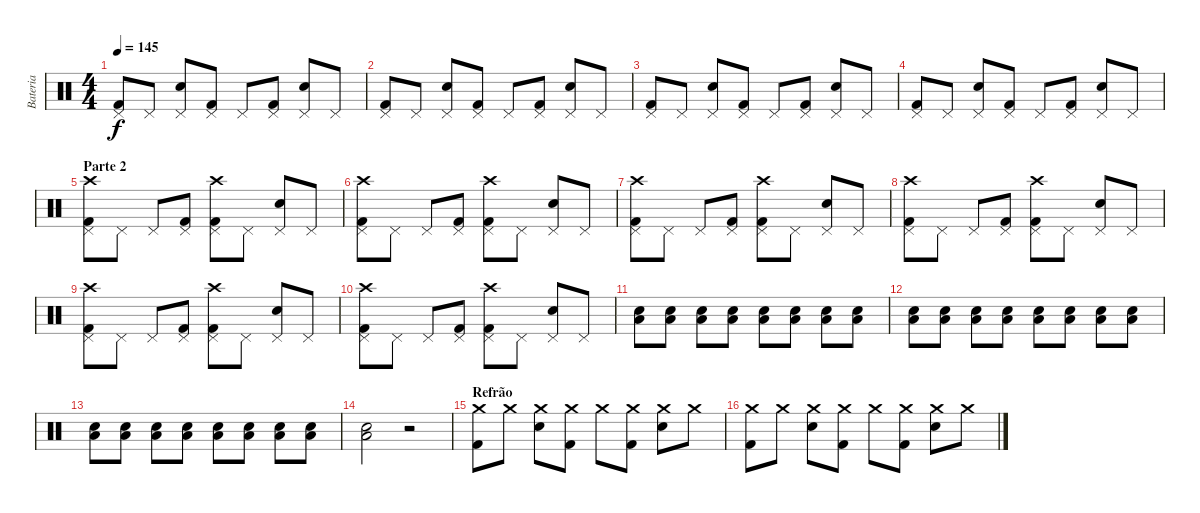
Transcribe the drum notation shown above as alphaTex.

\track ("Bateria" "Bateria") {instrument percussion}
\staff {score}
\articulation defaults
\ts (4 4)
\tempo 145
\clef neutral
\ks c
("Kick (hit) 2" "Pedal Hi-Hat (hit)").8{dy f} "Pedal Hi-Hat (hit)".8 ("Pedal Hi-Hat (hit)" "Snare (hit) 2").8 ("Kick (hit) 2" "Pedal Hi-Hat (hit)").8 "Pedal Hi-Hat (hit)".8 ("Kick (hit) 2" "Pedal Hi-Hat (hit)").8 ("Pedal Hi-Hat (hit)" "Snare (hit) 2").8 "Pedal Hi-Hat (hit)".8 |
("Kick (hit) 2" "Pedal Hi-Hat (hit)").8 "Pedal Hi-Hat (hit)".8 ("Pedal Hi-Hat (hit)" "Snare (hit) 2").8 ("Kick (hit) 2" "Pedal Hi-Hat (hit)").8 "Pedal Hi-Hat (hit)".8 ("Kick (hit) 2" "Pedal Hi-Hat (hit)").8 ("Pedal Hi-Hat (hit)" "Snare (hit) 2").8 "Pedal Hi-Hat (hit)".8 |
("Kick (hit) 2" "Pedal Hi-Hat (hit)").8 "Pedal Hi-Hat (hit)".8 ("Pedal Hi-Hat (hit)" "Snare (hit) 2").8 ("Kick (hit) 2" "Pedal Hi-Hat (hit)").8 "Pedal Hi-Hat (hit)".8 ("Kick (hit) 2" "Pedal Hi-Hat (hit)").8 ("Pedal Hi-Hat (hit)" "Snare (hit) 2").8 "Pedal Hi-Hat (hit)".8 |
("Kick (hit) 2" "Pedal Hi-Hat (hit)").8 "Pedal Hi-Hat (hit)".8 ("Pedal Hi-Hat (hit)" "Snare (hit) 2").8 ("Kick (hit) 2" "Pedal Hi-Hat (hit)").8 "Pedal Hi-Hat (hit)".8 ("Kick (hit) 2" "Pedal Hi-Hat (hit)").8 ("Pedal Hi-Hat (hit)" "Snare (hit) 2").8 "Pedal Hi-Hat (hit)".8 |
\section ("" "Parte 2")
("Kick (hit) 2" "Pedal Hi-Hat (hit)" "Crash high (hit)").8 "Pedal Hi-Hat (hit)".8 "Pedal Hi-Hat (hit)".8 ("Kick (hit) 2" "Pedal Hi-Hat (hit)").8 ("Kick (hit) 2" "Pedal Hi-Hat (hit)" "Crash high (hit)").8 "Pedal Hi-Hat (hit)".8 ("Snare (hit) 2" "Pedal Hi-Hat (hit)").8 "Pedal Hi-Hat (hit)".8 |
("Kick (hit) 2" "Pedal Hi-Hat (hit)" "Crash high (hit)").8 "Pedal Hi-Hat (hit)".8 "Pedal Hi-Hat (hit)".8 ("Kick (hit) 2" "Pedal Hi-Hat (hit)").8 ("Kick (hit) 2" "Pedal Hi-Hat (hit)" "Crash high (hit)").8 "Pedal Hi-Hat (hit)".8 ("Snare (hit) 2" "Pedal Hi-Hat (hit)").8 "Pedal Hi-Hat (hit)".8 |
("Kick (hit) 2" "Pedal Hi-Hat (hit)" "Crash high (hit)").8 "Pedal Hi-Hat (hit)".8 "Pedal Hi-Hat (hit)".8 ("Kick (hit) 2" "Pedal Hi-Hat (hit)").8 ("Kick (hit) 2" "Pedal Hi-Hat (hit)" "Crash high (hit)").8 "Pedal Hi-Hat (hit)".8 ("Snare (hit) 2" "Pedal Hi-Hat (hit)").8 "Pedal Hi-Hat (hit)".8 |
("Kick (hit) 2" "Pedal Hi-Hat (hit)" "Crash high (hit)").8 "Pedal Hi-Hat (hit)".8 "Pedal Hi-Hat (hit)".8 ("Kick (hit) 2" "Pedal Hi-Hat (hit)").8 ("Kick (hit) 2" "Pedal Hi-Hat (hit)" "Crash high (hit)").8 "Pedal Hi-Hat (hit)".8 ("Snare (hit) 2" "Pedal Hi-Hat (hit)").8 "Pedal Hi-Hat (hit)".8 |
("Kick (hit) 2" "Pedal Hi-Hat (hit)" "Crash high (hit)").8 "Pedal Hi-Hat (hit)".8 "Pedal Hi-Hat (hit)".8 ("Kick (hit) 2" "Pedal Hi-Hat (hit)").8 ("Kick (hit) 2" "Pedal Hi-Hat (hit)" "Crash high (hit)").8 "Pedal Hi-Hat (hit)".8 ("Snare (hit) 2" "Pedal Hi-Hat (hit)").8 "Pedal Hi-Hat (hit)".8 |
("Kick (hit) 2" "Pedal Hi-Hat (hit)" "Crash high (hit)").8 "Pedal Hi-Hat (hit)".8 "Pedal Hi-Hat (hit)".8 ("Kick (hit) 2" "Pedal Hi-Hat (hit)").8 ("Kick (hit) 2" "Pedal Hi-Hat (hit)" "Crash high (hit)").8 "Pedal Hi-Hat (hit)".8 ("Snare (hit) 2" "Pedal Hi-Hat (hit)").8 "Pedal Hi-Hat (hit)".8 |
("Snare (hit) 2" "Low Floor Tom (hit)").8 ("Snare (hit) 2" "Low Floor Tom (hit)").8 ("Snare (hit) 2" "Low Floor Tom (hit)").8 ("Snare (hit) 2" "Low Floor Tom (hit)").8 ("Snare (hit) 2" "Low Floor Tom (hit)").8 ("Snare (hit) 2" "Low Floor Tom (hit)").8 ("Snare (hit) 2" "Low Floor Tom (hit)").8 ("Snare (hit) 2" "Low Floor Tom (hit)").8 |
("Snare (hit) 2" "Low Floor Tom (hit)").8 ("Snare (hit) 2" "Low Floor Tom (hit)").8 ("Snare (hit) 2" "Low Floor Tom (hit)").8 ("Snare (hit) 2" "Low Floor Tom (hit)").8 ("Snare (hit) 2" "Low Floor Tom (hit)").8 ("Snare (hit) 2" "Low Floor Tom (hit)").8 ("Snare (hit) 2" "Low Floor Tom (hit)").8 ("Snare (hit) 2" "Low Floor Tom (hit)").8 |
("Snare (hit) 2" "Low Floor Tom (hit)").8 ("Snare (hit) 2" "Low Floor Tom (hit)").8 ("Snare (hit) 2" "Low Floor Tom (hit)").8 ("Snare (hit) 2" "Low Floor Tom (hit)").8 ("Snare (hit) 2" "Low Floor Tom (hit)").8 ("Snare (hit) 2" "Low Floor Tom (hit)").8 ("Snare (hit) 2" "Low Floor Tom (hit)").8 ("Snare (hit) 2" "Low Floor Tom (hit)").8 |
("Snare (hit) 2" "Low Floor Tom (hit)").2 r.2 |
\section ("" "Refrão")
("Kick (hit) 2" "Crash medium (hit)").8 "Crash medium (hit)".8 ("Snare (hit) 2" "Crash medium (hit)").8 ("Kick (hit) 2" "Crash medium (hit)").8 "Crash medium (hit)".8 ("Kick (hit) 2" "Crash medium (hit)").8 ("Snare (hit) 2" "Crash medium (hit)").8 "Crash medium (hit)".8 |
("Kick (hit) 2" "Crash medium (hit)").8 "Crash medium (hit)".8 ("Snare (hit) 2" "Crash medium (hit)").8 ("Kick (hit) 2" "Crash medium (hit)").8 "Crash medium (hit)".8 ("Kick (hit) 2" "Crash medium (hit)").8 ("Snare (hit) 2" "Crash medium (hit)").8 "Crash medium (hit)".8
